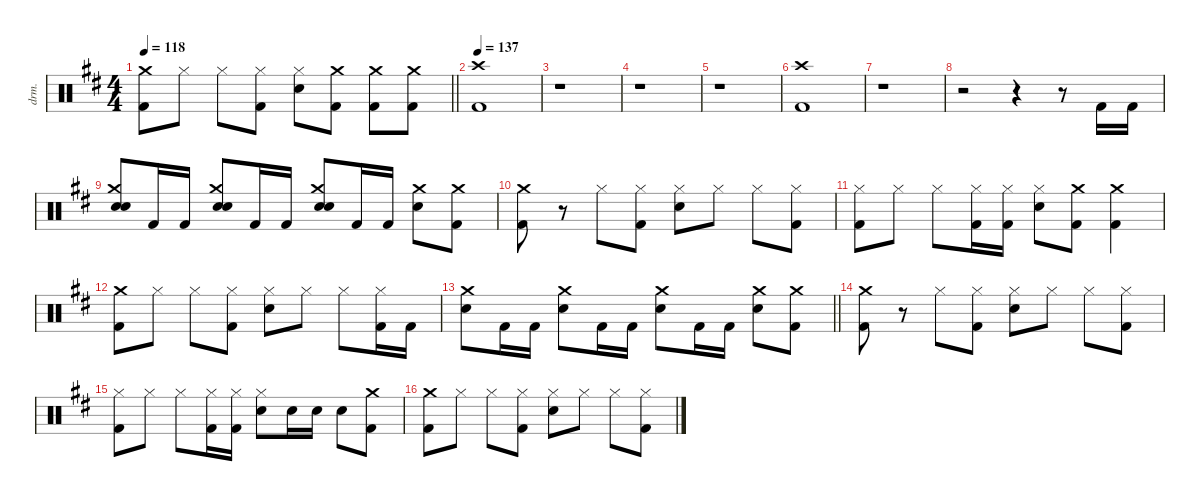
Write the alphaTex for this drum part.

\defaultSystemsLayout 4
\hideDynamics
\bracketExtendMode nobrackets
\otherSystemsTrackNameOrientation horizontal
\track ("Lars - Drums" "drm.") {instrument percussion}
\staff {score}
\articulation defaults
\ts (4 4)
\tempo 118
\clef neutral
\barLineRight lightlight
\ks bminor
("Crash medium (hit)"{acc forcenatural} "Kick (hit) 2"{acc forcenatural}).8{dy f beam Down} "Hi-Hat (closed)"{acc forcenatural}.8{beam Down} "Hi-Hat (closed)"{acc forcenatural}.8{beam Down} ("Hi-Hat (closed)"{acc forcenatural} "Kick (hit) 2"{acc forcenatural}).8{beam Down} ("Hi-Hat (closed)"{acc forcenatural} "Snare (hit) 2"{acc forcenatural}).8{beam Down} ("Crash medium (hit)"{acc forcenatural} "Kick (hit) 2"{acc forcenatural}).8{beam Down} ("Crash medium (hit)"{acc forcenatural} "Kick (hit) 2"{acc forcenatural}).8{beam Down} ("Crash medium (hit)"{acc forcenatural} "Kick (hit) 2"{acc forcenatural}).8{beam Down} |
\tempo 137
("Crash high (hit)"{acc forcenatural} "Kick (hit) 2"{acc forcenatural}).1{beam Down} |
r.1{beam Down} |
r.1{beam Down} |
r.1{beam Down} |
("Crash high (hit)"{acc forcenatural} "Kick (hit) 2"{acc forcenatural}).1{beam Down} |
r.1{beam Down} |
r.2{beam Down} r.4{beam Down} r.8{beam Down} "Kick (hit) 2"{acc forcenatural}.16{beam Up} "Kick (hit) 2"{acc forcenatural}.16{beam Up} |
("Snare (hit) 2"{acc forcenatural} "Crash medium (hit)"{acc forcenatural} "Snare (hit) 2"{acc forcenatural}).8{dy ff beam Up} "Kick (hit) 2"{acc forcenatural}.16{dy f beam Up} "Kick (hit) 2"{acc forcenatural}.16{beam Up} ("Snare (hit) 2"{acc forcenatural} "Crash medium (hit)"{acc forcenatural} "Snare (hit) 2"{acc forcenatural}).8{dy ff beam Up} "Kick (hit) 2"{acc forcenatural}.16{dy f beam Up} "Kick (hit) 2"{acc forcenatural}.16{beam Up} ("Snare (hit) 2"{acc forcenatural} "Crash medium (hit)"{acc forcenatural} "Snare (hit) 2"{acc forcenatural}).8{dy ff beam Up} "Kick (hit) 2"{acc forcenatural}.16{dy f beam Up} "Kick (hit) 2"{acc forcenatural}.16{beam Up} ("Crash medium (hit)"{acc forcenatural} "Snare (hit) 2"{acc forcenatural}).8{beam Down} ("Crash medium (hit)"{acc forcenatural} "Kick (hit) 2"{acc forcenatural}).8{beam Down} |
("Crash medium (hit)"{acc forcenatural} "Kick (hit) 2"{acc forcenatural}).8{beam Down} r.8{beam Down} "Hi-Hat (closed)"{acc forcenatural}.8{beam Down} ("Hi-Hat (closed)"{acc forcenatural} "Kick (hit) 2"{acc forcenatural}).8{beam Down} ("Hi-Hat (closed)"{acc forcenatural} "Snare (hit) 2"{acc forcenatural}).8{beam Down} "Hi-Hat (closed)"{acc forcenatural}.8{beam Down} "Hi-Hat (closed)"{acc forcenatural}.8{beam Down} ("Hi-Hat (closed)"{acc forcenatural} "Kick (hit) 2"{acc forcenatural}).8{beam Down} |
("Hi-Hat (closed)"{acc forcenatural} "Kick (hit) 2"{acc forcenatural}).8{beam Down} "Hi-Hat (closed)"{acc forcenatural}.8{beam Down} "Hi-Hat (closed)"{acc forcenatural}.8{beam Down} ("Hi-Hat (closed)"{acc forcenatural} "Kick (hit) 2"{acc forcenatural}).16{beam Down} ("Hi-Hat (closed)"{acc forcenatural} "Kick (hit) 2"{acc forcenatural}).16{beam Down} ("Hi-Hat (closed)"{acc forcenatural} "Snare (hit) 2"{acc forcenatural}).8{beam Down} ("Crash medium (hit)"{acc forcenatural} "Kick (hit) 2"{acc forcenatural}).8{beam Down} ("Crash medium (hit)"{acc forcenatural} "Kick (hit) 2"{acc forcenatural}).4{beam Down} |
("Crash medium (hit)"{acc forcenatural} "Kick (hit) 2"{acc forcenatural}).8{beam Down} "Hi-Hat (closed)"{acc forcenatural}.8{beam Down} "Hi-Hat (closed)"{acc forcenatural}.8{beam Down} ("Hi-Hat (closed)"{acc forcenatural} "Kick (hit) 2"{acc forcenatural}).8{beam Down} ("Hi-Hat (closed)"{acc forcenatural} "Snare (hit) 2"{acc forcenatural}).8{beam Down} "Hi-Hat (closed)"{acc forcenatural}.8{beam Down} "Hi-Hat (closed)"{acc forcenatural}.8{beam Down} ("Hi-Hat (closed)"{acc forcenatural} "Kick (hit) 2"{acc forcenatural}).16{beam Down} "Kick (hit) 2"{acc forcenatural}.16{beam Down} |
\barLineRight lightlight
("Crash medium (hit)"{acc forcenatural} "Snare (hit) 2"{acc forcenatural}).8{beam Down} "Kick (hit) 2"{acc forcenatural}.16{beam Down} "Kick (hit) 2"{acc forcenatural}.16{beam Down} ("Crash medium (hit)"{acc forcenatural} "Snare (hit) 2"{acc forcenatural}).8{beam Down} "Kick (hit) 2"{acc forcenatural}.16{beam Down} "Kick (hit) 2"{acc forcenatural}.16{beam Down} ("Crash medium (hit)"{acc forcenatural} "Snare (hit) 2"{acc forcenatural}).8{beam Down} "Kick (hit) 2"{acc forcenatural}.16{beam Down} "Kick (hit) 2"{acc forcenatural}.16{beam Down} ("Crash medium (hit)"{acc forcenatural} "Snare (hit) 2"{acc forcenatural}).8{beam Down} ("Crash medium (hit)"{acc forcenatural} "Kick (hit) 2"{acc forcenatural}).8{beam Down} |
("Crash medium (hit)"{acc forcenatural} "Kick (hit) 2"{acc forcenatural}).8{beam Down} r.8{beam Down} "Hi-Hat (closed)"{acc forcenatural}.8{beam Down} ("Hi-Hat (closed)"{acc forcenatural} "Kick (hit) 2"{acc forcenatural}).8{beam Down} ("Hi-Hat (closed)"{acc forcenatural} "Snare (hit) 2"{acc forcenatural}).8{beam Down} "Hi-Hat (closed)"{acc forcenatural}.8{beam Down} "Hi-Hat (closed)"{acc forcenatural}.8{beam Down} ("Hi-Hat (closed)"{acc forcenatural} "Kick (hit) 2"{acc forcenatural}).8{beam Down} |
("Hi-Hat (closed)"{acc forcenatural} "Kick (hit) 2"{acc forcenatural}).8{beam Down} "Hi-Hat (closed)"{acc forcenatural}.8{beam Down} "Hi-Hat (closed)"{acc forcenatural}.8{beam Down} ("Hi-Hat (closed)"{acc forcenatural} "Kick (hit) 2"{acc forcenatural}).16{beam Down} ("Hi-Hat (closed)"{acc forcenatural} "Kick (hit) 2"{acc forcenatural}).16{beam Down} ("Hi-Hat (closed)"{acc forcenatural} "Snare (hit) 2"{acc forcenatural}).8{beam Down} "Snare (hit) 2"{acc forcenatural}.16{beam Down} "Snare (hit) 2"{acc forcenatural}.16{beam Down} "Snare (hit) 2"{acc forcenatural}.8{beam Down} ("Crash medium (hit)"{acc forcenatural} "Kick (hit) 2"{acc forcenatural}).8{beam Down} |
("Crash medium (hit)"{acc forcenatural} "Kick (hit) 2"{acc forcenatural}).8{beam Down} "Hi-Hat (closed)"{acc forcenatural}.8{beam Down} "Hi-Hat (closed)"{acc forcenatural}.8{beam Down} ("Hi-Hat (closed)"{acc forcenatural} "Kick (hit) 2"{acc forcenatural}).8{beam Down} ("Hi-Hat (closed)"{acc forcenatural} "Snare (hit) 2"{acc forcenatural}).8{beam Down} "Hi-Hat (closed)"{acc forcenatural}.8{beam Down} "Hi-Hat (closed)"{acc forcenatural}.8{beam Down} ("Hi-Hat (closed)"{acc forcenatural} "Kick (hit) 2"{acc forcenatural}).8{beam Down}
